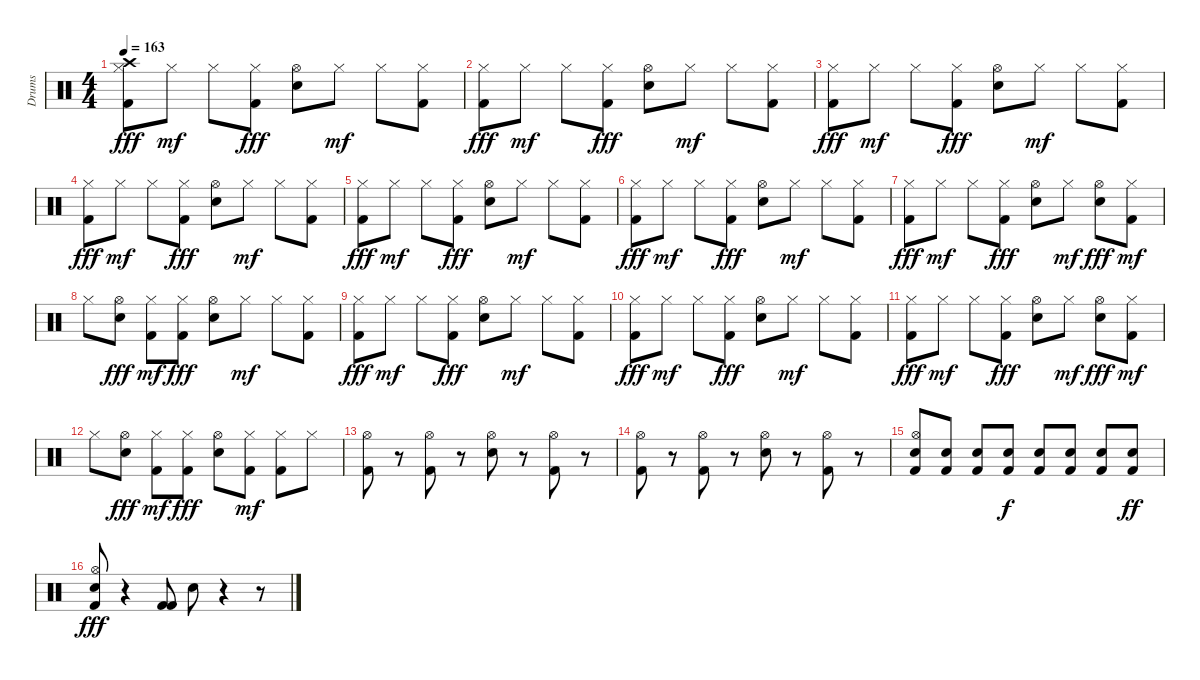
\track ("Drums" "Drums") {instrument percussion}
\staff {score}
\articulation defaults
\ts (4 4)
\tempo 163
\clef neutral
\ks c
("Hi-Hat (closed)" "Crash high (hit)" "Kick (hit) 2").8{dy fff} "Hi-Hat (closed)".8{dy mf} "Hi-Hat (closed)".8 ("Hi-Hat (closed)" "Kick (hit) 2").8{dy fff} ("Hi-Hat (open)" "Electric Snare (hit)").8 "Hi-Hat (closed)".8{dy mf} "Hi-Hat (closed)".8 ("Kick (hit) 2" "Hi-Hat (closed)").8 |
("Hi-Hat (closed)" "Kick (hit) 2").8{dy fff} "Hi-Hat (closed)".8{dy mf} "Hi-Hat (closed)".8 ("Hi-Hat (closed)" "Kick (hit) 2").8{dy fff} ("Hi-Hat (open)" "Electric Snare (hit)").8 "Hi-Hat (closed)".8{dy mf} "Hi-Hat (closed)".8 ("Kick (hit) 2" "Hi-Hat (closed)").8 |
("Hi-Hat (closed)" "Kick (hit) 2").8{dy fff} "Hi-Hat (closed)".8{dy mf} "Hi-Hat (closed)".8 ("Hi-Hat (closed)" "Kick (hit) 2").8{dy fff} ("Hi-Hat (open)" "Electric Snare (hit)").8 "Hi-Hat (closed)".8{dy mf} "Hi-Hat (closed)".8 ("Kick (hit) 2" "Hi-Hat (closed)").8 |
("Hi-Hat (closed)" "Kick (hit) 2").8{dy fff} "Hi-Hat (closed)".8{dy mf} "Hi-Hat (closed)".8 ("Hi-Hat (closed)" "Kick (hit) 2").8{dy fff} ("Hi-Hat (open)" "Electric Snare (hit)").8 "Hi-Hat (closed)".8{dy mf} "Hi-Hat (closed)".8 ("Kick (hit) 2" "Hi-Hat (closed)").8 |
("Hi-Hat (closed)" "Kick (hit) 2").8{dy fff} "Hi-Hat (closed)".8{dy mf} "Hi-Hat (closed)".8 ("Hi-Hat (closed)" "Kick (hit) 2").8{dy fff} ("Hi-Hat (open)" "Electric Snare (hit)").8 "Hi-Hat (closed)".8{dy mf} "Hi-Hat (closed)".8 ("Kick (hit) 2" "Hi-Hat (closed)").8 |
("Hi-Hat (closed)" "Kick (hit) 2").8{dy fff} "Hi-Hat (closed)".8{dy mf} "Hi-Hat (closed)".8 ("Hi-Hat (closed)" "Kick (hit) 2").8{dy fff} ("Hi-Hat (open)" "Electric Snare (hit)").8 "Hi-Hat (closed)".8{dy mf} "Hi-Hat (closed)".8 ("Kick (hit) 2" "Hi-Hat (closed)").8 |
("Hi-Hat (closed)" "Kick (hit) 2").8{dy fff} "Hi-Hat (closed)".8{dy mf} "Hi-Hat (closed)".8 ("Hi-Hat (closed)" "Kick (hit) 2").8{dy fff} ("Hi-Hat (open)" "Electric Snare (hit)").8 "Hi-Hat (closed)".8{dy mf} ("Hi-Hat (open)" "Electric Snare (hit)").8{dy fff} ("Kick (hit) 2" "Hi-Hat (closed)").8{dy mf} |
"Hi-Hat (closed)".8 ("Hi-Hat (open)" "Electric Snare (hit)").8{dy fff} ("Kick (hit) 2" "Hi-Hat (closed)").8{dy mf} ("Hi-Hat (closed)" "Kick (hit) 2").8{dy fff} ("Hi-Hat (open)" "Electric Snare (hit)").8 "Hi-Hat (closed)".8{dy mf} "Hi-Hat (closed)".8 ("Kick (hit) 2" "Hi-Hat (closed)").8 |
("Hi-Hat (closed)" "Kick (hit) 2").8{dy fff} "Hi-Hat (closed)".8{dy mf} "Hi-Hat (closed)".8 ("Hi-Hat (closed)" "Kick (hit) 2").8{dy fff} ("Hi-Hat (open)" "Electric Snare (hit)").8 "Hi-Hat (closed)".8{dy mf} "Hi-Hat (closed)".8 ("Kick (hit) 2" "Hi-Hat (closed)").8 |
("Hi-Hat (closed)" "Kick (hit) 2").8{dy fff} "Hi-Hat (closed)".8{dy mf} "Hi-Hat (closed)".8 ("Hi-Hat (closed)" "Kick (hit) 2").8{dy fff} ("Hi-Hat (open)" "Electric Snare (hit)").8 "Hi-Hat (closed)".8{dy mf} "Hi-Hat (closed)".8 ("Kick (hit) 2" "Hi-Hat (closed)").8 |
("Hi-Hat (closed)" "Kick (hit) 2").8{dy fff} "Hi-Hat (closed)".8{dy mf} "Hi-Hat (closed)".8 ("Hi-Hat (closed)" "Kick (hit) 2").8{dy fff} ("Hi-Hat (open)" "Electric Snare (hit)").8 "Hi-Hat (closed)".8{dy mf} ("Hi-Hat (open)" "Electric Snare (hit)").8{dy fff} ("Kick (hit) 2" "Hi-Hat (closed)").8{dy mf} |
"Hi-Hat (closed)".8 ("Hi-Hat (open)" "Electric Snare (hit)").8{dy fff} ("Kick (hit) 2" "Hi-Hat (closed)").8{dy mf} ("Hi-Hat (closed)" "Kick (hit) 2").8{dy fff} ("Hi-Hat (open)" "Electric Snare (hit)").8 ("Kick (hit) 2" "Hi-Hat (closed)").8{dy mf} ("Kick (hit) 2" "Hi-Hat (closed)").8 "Hi-Hat (closed)".8 |
("Hi-Hat (open)" "Kick (hit) 2").8 r.8 ("Hi-Hat (open)" "Kick (hit) 2").8 r.8 ("Electric Snare (hit)" "Hi-Hat (open)").8 r.8 ("Hi-Hat (open)" "Kick (hit) 2").8 r.8 |
("Hi-Hat (open)" "Kick (hit) 2").8 r.8 ("Hi-Hat (open)" "Kick (hit) 2").8 r.8 ("Electric Snare (hit)" "Hi-Hat (open)").8 r.8 ("Hi-Hat (open)" "Kick (hit) 2").8 r.8 |
("Kick (hit) 2" "Electric Snare (hit)" "Hi-Hat (open)").8 ("Kick (hit) 2" "Electric Snare (hit)").8 ("Kick (hit) 2" "Electric Snare (hit)").8 ("Kick (hit) 2" "Electric Snare (hit)").8{dy f} ("Kick (hit) 2" "Electric Snare (hit)").8 ("Kick (hit) 2" "Electric Snare (hit)").8 ("Kick (hit) 2" "Electric Snare (hit)").8 ("Kick (hit) 2" "Electric Snare (hit)").8{dy ff} |
("Hi-Hat (open)" "Kick (hit) 2" "Electric Snare (hit)").8{dy fff} r.4 ("Kick (hit) 2" "Kick (hit) 2").8 "Electric Snare (hit)".8 r.4 r.8
